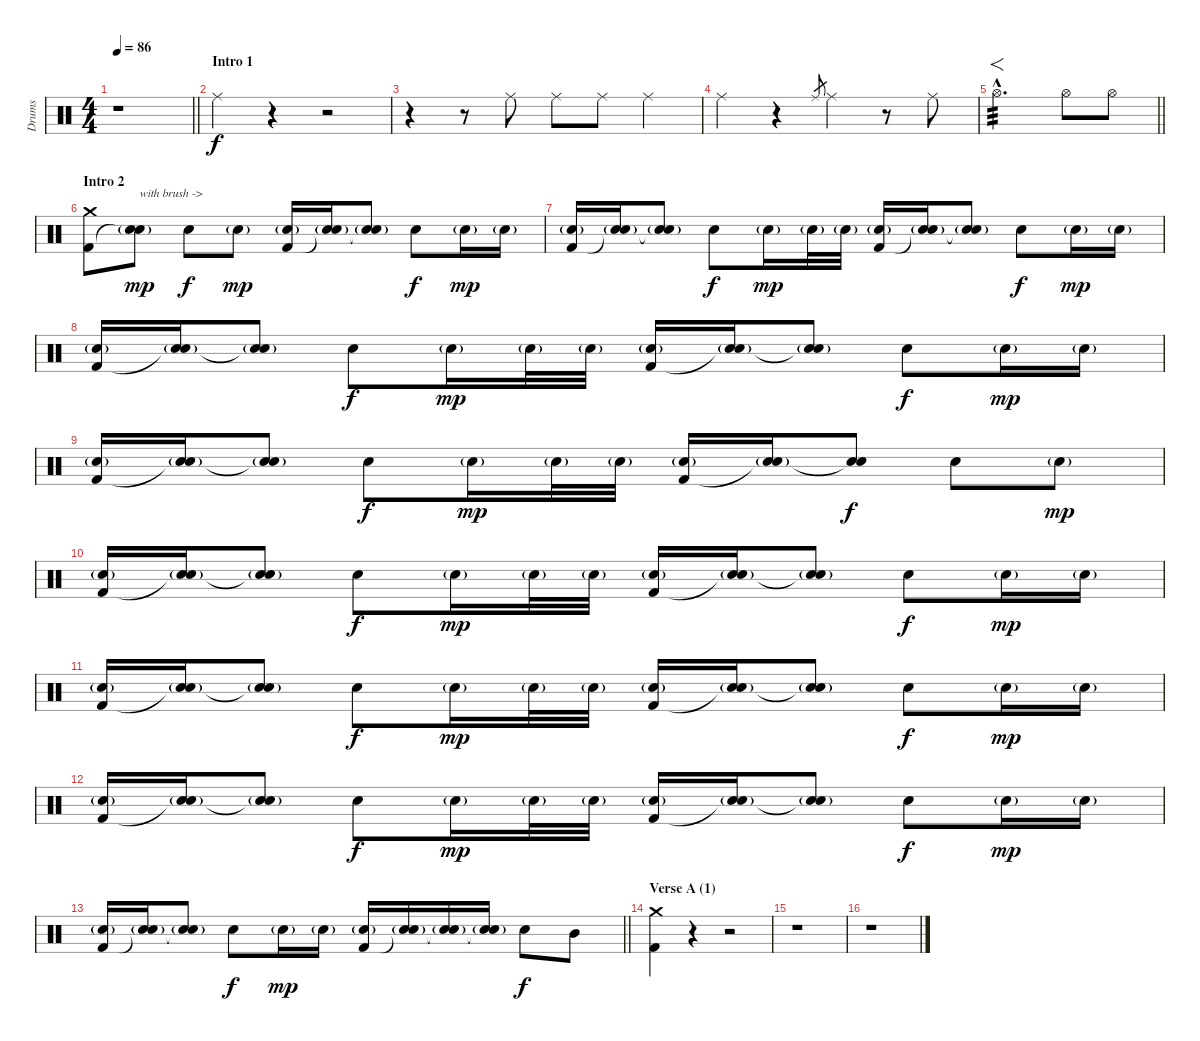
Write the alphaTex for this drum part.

\track ("Drums" "Drums") {instrument percussion}
\staff {score}
\articulation defaults
\ts (4 4)
\tempo 86
\clef neutral
\barLineRight lightlight
\ks aminor
r.1{dy f} |
\section ("" "Intro 1")
"Ride (middle)".4 r.4 r.2 |
r.4 r.8 "Ride (middle)".8 "Ride (middle)".8 "Ride (middle)".8 "Ride (middle)".4 |
"Ride (middle)".4 r.4 "Ride (middle)".8{gr} "Ride (middle)".4 r.8 "Ride (middle)".8 |
\barLineRight lightlight "Hi-Hat (open)"{hac}.2{f d tp 3} "Hi-Hat (open)".8 "Hi-Hat (open)".8
|
\section ("" "Intro 2")
("Crash medium (hit)" "Kick (hit) 2").8 ("Electric Snare (hit)"{g} "Snare (hit)"{t}).8{txt "with brush ->" dy mp} "Electric Snare (hit)".8{dy f} "Electric Snare (hit)"{g}.8{dy mp} ("Electric Snare (hit)"{g} "Kick (hit) 2").16 ("Electric Snare (hit)"{g} "Snare (hit)"{t}).16 ("Electric Snare (hit)"{g} "Snare (hit)"{t}).8 "Electric Snare (hit)".8{dy f} "Electric Snare (hit)"{g}.16{dy mp} "Electric Snare (hit)"{g}.16 |
("Electric Snare (hit)"{g} "Kick (hit) 2").16 ("Electric Snare (hit)"{g} "Snare (hit)"{t}).16 ("Electric Snare (hit)"{g} "Snare (hit)"{t}).8 "Electric Snare (hit)".8{dy f} "Electric Snare (hit)"{g}.16{dy mp} "Electric Snare (hit)"{g}.32 "Electric Snare (hit)"{g}.32 ("Electric Snare (hit)"{g} "Kick (hit) 2").16 ("Electric Snare (hit)"{g} "Snare (hit)"{t}).16 ("Electric Snare (hit)"{g} "Snare (hit)"{t}).8 "Electric Snare (hit)".8{dy f} "Electric Snare (hit)"{g}.16{dy mp} "Electric Snare (hit)"{g}.16 |
("Electric Snare (hit)"{g} "Kick (hit) 2").16 ("Electric Snare (hit)"{g} "Snare (hit)"{t}).16 ("Electric Snare (hit)"{g} "Snare (hit)"{t}).8 "Electric Snare (hit)".8{dy f} "Electric Snare (hit)"{g}.16{dy mp} "Electric Snare (hit)"{g}.32 "Electric Snare (hit)"{g}.32 ("Electric Snare (hit)"{g} "Kick (hit) 2").16 ("Electric Snare (hit)"{g} "Snare (hit)"{t}).16 ("Electric Snare (hit)"{g} "Snare (hit)"{t}).8 "Electric Snare (hit)".8{dy f} "Electric Snare (hit)"{g}.16{dy mp} "Electric Snare (hit)"{g}.16 |
("Electric Snare (hit)"{g} "Kick (hit) 2").16 ("Electric Snare (hit)"{g} "Snare (hit)"{t}).16 ("Electric Snare (hit)"{g} "Snare (hit)"{t}).8 "Electric Snare (hit)".8{dy f} "Electric Snare (hit)"{g}.16{dy mp} "Electric Snare (hit)"{g}.32 "Electric Snare (hit)"{g}.32 ("Electric Snare (hit)"{g} "Kick (hit) 2").16 ("Electric Snare (hit)"{g} "Snare (hit)"{t}).16 ("Electric Snare (hit)" "Snare (hit)"{t}).8{dy f} "Electric Snare (hit)".8 "Electric Snare (hit)"{g}.8{dy mp} |
("Electric Snare (hit)"{g} "Kick (hit) 2").16 ("Electric Snare (hit)"{g} "Snare (hit)"{t}).16 ("Electric Snare (hit)"{g} "Snare (hit)"{t}).8 "Electric Snare (hit)".8{dy f} "Electric Snare (hit)"{g}.16{dy mp} "Electric Snare (hit)"{g}.32 "Electric Snare (hit)"{g}.32 ("Electric Snare (hit)"{g} "Kick (hit) 2").16 ("Electric Snare (hit)"{g} "Snare (hit)"{t}).16 ("Electric Snare (hit)"{g} "Snare (hit)"{t}).8 "Electric Snare (hit)".8{dy f} "Electric Snare (hit)"{g}.16{dy mp} "Electric Snare (hit)"{g}.16 |
("Electric Snare (hit)"{g} "Kick (hit) 2").16 ("Electric Snare (hit)"{g} "Snare (hit)"{t}).16 ("Electric Snare (hit)"{g} "Snare (hit)"{t}).8 "Electric Snare (hit)".8{dy f} "Electric Snare (hit)"{g}.16{dy mp} "Electric Snare (hit)"{g}.32 "Electric Snare (hit)"{g}.32 ("Electric Snare (hit)"{g} "Kick (hit) 2").16 ("Electric Snare (hit)"{g} "Snare (hit)"{t}).16 ("Electric Snare (hit)"{g} "Snare (hit)"{t}).8 "Electric Snare (hit)".8{dy f} "Electric Snare (hit)"{g}.16{dy mp} "Electric Snare (hit)"{g}.16 |
("Electric Snare (hit)"{g} "Kick (hit) 2").16 ("Electric Snare (hit)"{g} "Snare (hit)"{t}).16 ("Electric Snare (hit)"{g} "Snare (hit)"{t}).8 "Electric Snare (hit)".8{dy f} "Electric Snare (hit)"{g}.16{dy mp} "Electric Snare (hit)"{g}.32 "Electric Snare (hit)"{g}.32 ("Electric Snare (hit)"{g} "Kick (hit) 2").16 ("Electric Snare (hit)"{g} "Snare (hit)"{t}).16 ("Electric Snare (hit)"{g} "Snare (hit)"{t}).8 "Electric Snare (hit)".8{dy f} "Electric Snare (hit)"{g}.16{dy mp} "Electric Snare (hit)"{g}.16 |
\barLineRight lightlight
("Electric Snare (hit)"{g} "Kick (hit) 2").16 ("Electric Snare (hit)"{g} "Snare (hit)"{t}).16 ("Electric Snare (hit)"{g} "Snare (hit)"{t}).8 "Electric Snare (hit)".8{dy f} "Electric Snare (hit)"{g}.16{dy mp} "Electric Snare (hit)"{g}.16 ("Electric Snare (hit)"{g} "Kick (hit) 2").16 ("Electric Snare (hit)"{g} "Snare (hit)"{t}).16 ("Electric Snare (hit)"{g} "Snare (hit)"{t}).16 ("Electric Snare (hit)"{g} "Snare (hit)"{t}).16 "Electric Snare (hit)".8{dy f} "Mid Tom (hit)".8 |
\section ("" "Verse A (1)")
("Crash medium (hit)" "Kick (hit) 2").4 r.4 r.2 |
r.1 |
r.1
